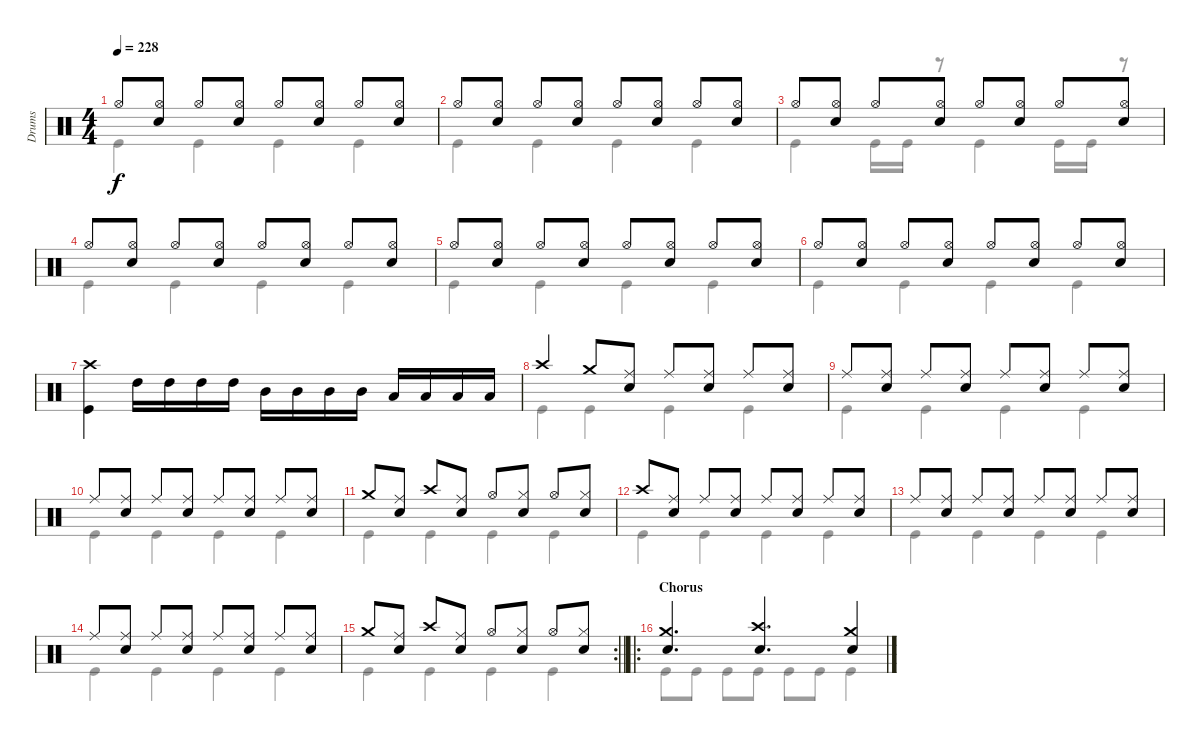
\track ("Drums" "Drums") {instrument percussion}
\staff {score}
\articulation defaults
\voice
\ts (4 4)
\tempo 228
\clef neutral
\ks c "Hi-Hat (open)".8{dy f}
("Hi-Hat (open)" "Snare (hit) 2").8 "Hi-Hat (open)".8 ("Hi-Hat (open)" "Snare (hit) 2").8 "Hi-Hat (open)".8 ("Hi-Hat (open)" "Snare (hit) 2").8 "Hi-Hat (open)".8 ("Hi-Hat (open)" "Snare (hit) 2").8 |
"Hi-Hat (open)".8 ("Hi-Hat (open)" "Snare (hit) 2").8 "Hi-Hat (open)".8 ("Hi-Hat (open)" "Snare (hit) 2").8 "Hi-Hat (open)".8 ("Hi-Hat (open)" "Snare (hit) 2").8 "Hi-Hat (open)".8 ("Hi-Hat (open)" "Snare (hit) 2").8 |
"Hi-Hat (open)".8 ("Hi-Hat (open)" "Snare (hit) 2").8 "Hi-Hat (open)".8 ("Hi-Hat (open)" "Snare (hit) 2").8 "Hi-Hat (open)".8 ("Hi-Hat (open)" "Snare (hit) 2").8 "Hi-Hat (open)".8 ("Hi-Hat (open)" "Snare (hit) 2").8 |
"Hi-Hat (open)".8 ("Hi-Hat (open)" "Snare (hit) 2").8 "Hi-Hat (open)".8 ("Hi-Hat (open)" "Snare (hit) 2").8 "Hi-Hat (open)".8 ("Hi-Hat (open)" "Snare (hit) 2").8 "Hi-Hat (open)".8 ("Hi-Hat (open)" "Snare (hit) 2").8 |
"Hi-Hat (open)".8 ("Hi-Hat (open)" "Snare (hit) 2").8 "Hi-Hat (open)".8 ("Hi-Hat (open)" "Snare (hit) 2").8 "Hi-Hat (open)".8 ("Hi-Hat (open)" "Snare (hit) 2").8 "Hi-Hat (open)".8 ("Hi-Hat (open)" "Snare (hit) 2").8 |
"Hi-Hat (open)".8 ("Hi-Hat (open)" "Snare (hit) 2").8 "Hi-Hat (open)".8 ("Hi-Hat (open)" "Snare (hit) 2").8 "Hi-Hat (open)".8 ("Hi-Hat (open)" "Snare (hit) 2").8 "Hi-Hat (open)".8 ("Hi-Hat (open)" "Snare (hit) 2").8 |
("Crash high (hit)" "Kick (hit)").4 "High Tom (hit)".16 "High Tom (hit)".16 "High Tom (hit)".16 "High Tom (hit)".16 "Mid Tom (hit)".16 "Mid Tom (hit)".16 "Mid Tom (hit)".16 "Mid Tom (hit)".16 "Low Floor Tom (hit)".16 "Low Floor Tom (hit)".16 "Low Floor Tom (hit)".16 "Low Floor Tom (hit)".16 |
"Crash high (hit)".4 "Crash medium (hit)".8 ("Ride (middle)" "Snare (hit) 2").8 "Ride (middle)".8 ("Ride (middle)" "Snare (hit) 2").8 "Ride (middle)".8 ("Ride (middle)" "Snare (hit) 2").8 |
"Ride (middle)".8 ("Ride (middle)" "Snare (hit) 2").8 "Ride (middle)".8 ("Ride (middle)" "Snare (hit) 2").8 "Ride (middle)".8 ("Ride (middle)" "Snare (hit) 2").8 "Ride (middle)".8 ("Ride (middle)" "Snare (hit) 2").8 |
"Ride (middle)".8 ("Ride (middle)" "Snare (hit) 2").8 "Ride (middle)".8 ("Ride (middle)" "Snare (hit) 2").8 "Ride (middle)".8 ("Ride (middle)" "Snare (hit) 2").8 "Ride (middle)".8 ("Ride (middle)" "Snare (hit) 2").8 |
"Crash medium (hit)".8 ("Ride (middle)" "Snare (hit) 2").8 "Crash high (hit)".8 ("Ride (middle)" "Snare (hit) 2").8 "Hi-Hat (open)".8 ("Hi-Hat (closed)" "Snare (hit) 2").8 "Hi-Hat (open)".8 ("Hi-Hat (closed)" "Snare (hit) 2").8 |
"Crash high (hit)".8 ("Ride (middle)" "Snare (hit) 2").8 "Ride (middle)".8 ("Ride (middle)" "Snare (hit) 2").8 "Ride (middle)".8 ("Ride (middle)" "Snare (hit) 2").8 "Ride (middle)".8 ("Ride (middle)" "Snare (hit) 2").8 |
"Ride (middle)".8 ("Ride (middle)" "Snare (hit) 2").8 "Ride (middle)".8 ("Ride (middle)" "Snare (hit) 2").8 "Ride (middle)".8 ("Ride (middle)" "Snare (hit) 2").8 "Ride (middle)".8 ("Ride (middle)" "Snare (hit) 2").8 |
"Ride (middle)".8 ("Ride (middle)" "Snare (hit) 2").8 "Ride (middle)".8 ("Ride (middle)" "Snare (hit) 2").8 "Ride (middle)".8 ("Ride (middle)" "Snare (hit) 2").8 "Ride (middle)".8 ("Ride (middle)" "Snare (hit) 2").8 |
\rc 2
\barLineRight lightlight "Crash medium (hit)".8
("Ride (middle)" "Snare (hit) 2").8 "Crash high (hit)".8 ("Ride (middle)" "Snare (hit) 2").8 "Hi-Hat (open)".8 ("Hi-Hat (closed)" "Snare (hit) 2").8 "Hi-Hat (open)".8 ("Hi-Hat (closed)" "Snare (hit) 2").8 |
\ro
\section ("" "Chorus")
("Crash medium (hit)" "Snare (hit) 2").4{d} ("Crash high (hit)" "Snare (hit) 2").4{d} ("Crash medium (hit)" "Snare (hit) 2").4
\voice
\clef neutral
\ottava regular
\simile none
\ks c "Kick (hit)".4{dy f} "Kick (hit)".4 "Kick (hit)".4 "Kick (hit)".4
|
"Kick (hit)".4 "Kick (hit)".4 "Kick (hit)".4 "Kick (hit)".4 |
"Kick (hit)".4 "Kick (hit)".16 "Kick (hit)".16 r.8 "Kick (hit)".4 "Kick (hit)".16 "Kick (hit)".16 r.8 |
"Kick (hit)".4 "Kick (hit)".4 "Kick (hit)".4 "Kick (hit)".4 |
"Kick (hit)".4 "Kick (hit)".4 "Kick (hit)".4 "Kick (hit)".4 |
"Kick (hit)".4 "Kick (hit)".4 "Kick (hit)".4 "Kick (hit)".4 |
|
"Kick (hit)".4 "Kick (hit)".4 "Kick (hit)".4 "Kick (hit)".4 |
"Kick (hit)".4 "Kick (hit)".4 "Kick (hit)".4 "Kick (hit)".4 |
"Kick (hit)".4 "Kick (hit)".4 "Kick (hit)".4 "Kick (hit)".4 |
"Kick (hit)".4 "Kick (hit)".4 "Kick (hit)".4 "Kick (hit)".4 |
"Kick (hit)".4 "Kick (hit)".4 "Kick (hit)".4 "Kick (hit)".4 |
"Kick (hit)".4 "Kick (hit)".4 "Kick (hit)".4 "Kick (hit)".4 |
"Kick (hit)".4 "Kick (hit)".4 "Kick (hit)".4 "Kick (hit)".4 |
\barLineRight lightlight "Kick (hit)".4 "Kick (hit)".4 "Kick (hit)".4 "Kick (hit)".4
|
"Kick (hit)".8 "Kick (hit)".8 "Kick (hit)".8 "Kick (hit)".8 "Kick (hit)".8 "Kick (hit)".8 "Kick (hit)".4
